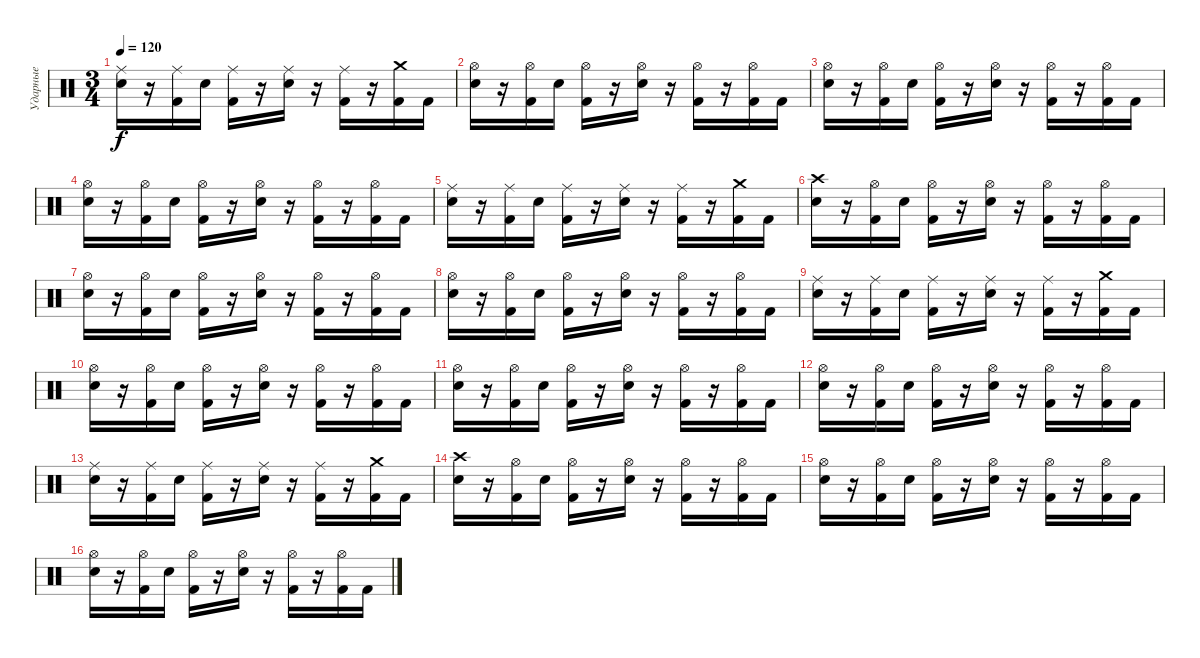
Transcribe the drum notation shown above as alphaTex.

\track ("Ударные" "Ударные") {instrument percussion}
\staff {score}
\articulation defaults
\ts (3 4)
\tempo 120
\clef neutral
\ks c
("Ride (middle)" "Electric Snare (hit)").16{dy f} r.16 ("Ride (middle)" "Kick (hit) 2").16 "Electric Snare (hit)".16 ("Ride (middle)" "Kick (hit) 2").16 r.16 ("Ride (middle)" "Electric Snare (hit)").16 r.16 ("Ride (middle)" "Kick (hit) 2").16 r.16 ("Crash medium (hit)" "Kick (hit) 2").16 "Kick (hit) 2".16 |
("Hi-Hat (open)" "Electric Snare (hit)").16 r.16 ("Hi-Hat (open)" "Kick (hit) 2").16 "Electric Snare (hit)".16 ("Hi-Hat (open)" "Kick (hit) 2").16 r.16 ("Hi-Hat (open)" "Electric Snare (hit)").16 r.16 ("Hi-Hat (open)" "Kick (hit) 2").16 r.16 ("Hi-Hat (open)" "Kick (hit) 2").16 "Kick (hit) 2".16 |
("Hi-Hat (open)" "Electric Snare (hit)").16 r.16 ("Hi-Hat (open)" "Kick (hit) 2").16 "Electric Snare (hit)".16 ("Hi-Hat (open)" "Kick (hit) 2").16 r.16 ("Hi-Hat (open)" "Electric Snare (hit)").16 r.16 ("Hi-Hat (open)" "Kick (hit) 2").16 r.16 ("Hi-Hat (open)" "Kick (hit) 2").16 "Kick (hit) 2".16 |
("Hi-Hat (open)" "Electric Snare (hit)").16 r.16 ("Hi-Hat (open)" "Kick (hit) 2").16 "Electric Snare (hit)".16 ("Hi-Hat (open)" "Kick (hit) 2").16 r.16 ("Hi-Hat (open)" "Electric Snare (hit)").16 r.16 ("Hi-Hat (open)" "Kick (hit) 2").16 r.16 ("Hi-Hat (open)" "Kick (hit) 2").16 "Kick (hit) 2".16 |
("Ride (middle)" "Electric Snare (hit)").16 r.16 ("Ride (middle)" "Kick (hit) 2").16 "Electric Snare (hit)".16 ("Ride (middle)" "Kick (hit) 2").16 r.16 ("Ride (middle)" "Electric Snare (hit)").16 r.16 ("Ride (middle)" "Kick (hit) 2").16 r.16 ("Crash medium (hit)" "Kick (hit) 2").16 "Kick (hit) 2".16 |
("Crash high (hit)" "Electric Snare (hit)").16 r.16 ("Hi-Hat (open)" "Kick (hit) 2").16 "Electric Snare (hit)".16 ("Hi-Hat (open)" "Kick (hit) 2").16 r.16 ("Hi-Hat (open)" "Electric Snare (hit)").16 r.16 ("Hi-Hat (open)" "Kick (hit) 2").16 r.16 ("Hi-Hat (open)" "Kick (hit) 2").16 "Kick (hit) 2".16 |
("Hi-Hat (open)" "Electric Snare (hit)").16 r.16 ("Hi-Hat (open)" "Kick (hit) 2").16 "Electric Snare (hit)".16 ("Hi-Hat (open)" "Kick (hit) 2").16 r.16 ("Hi-Hat (open)" "Electric Snare (hit)").16 r.16 ("Hi-Hat (open)" "Kick (hit) 2").16 r.16 ("Hi-Hat (open)" "Kick (hit) 2").16 "Kick (hit) 2".16 |
("Hi-Hat (open)" "Electric Snare (hit)").16 r.16 ("Hi-Hat (open)" "Kick (hit) 2").16 "Electric Snare (hit)".16 ("Hi-Hat (open)" "Kick (hit) 2").16 r.16 ("Hi-Hat (open)" "Electric Snare (hit)").16 r.16 ("Hi-Hat (open)" "Kick (hit) 2").16 r.16 ("Hi-Hat (open)" "Kick (hit) 2").16 "Kick (hit) 2".16 |
("Ride (middle)" "Electric Snare (hit)").16 r.16 ("Ride (middle)" "Kick (hit) 2").16 "Electric Snare (hit)".16 ("Ride (middle)" "Kick (hit) 2").16 r.16 ("Ride (middle)" "Electric Snare (hit)").16 r.16 ("Ride (middle)" "Kick (hit) 2").16 r.16 ("Crash medium (hit)" "Kick (hit) 2").16 "Kick (hit) 2".16 |
("Hi-Hat (open)" "Electric Snare (hit)").16 r.16 ("Hi-Hat (open)" "Kick (hit) 2").16 "Electric Snare (hit)".16 ("Hi-Hat (open)" "Kick (hit) 2").16 r.16 ("Hi-Hat (open)" "Electric Snare (hit)").16 r.16 ("Hi-Hat (open)" "Kick (hit) 2").16 r.16 ("Hi-Hat (open)" "Kick (hit) 2").16 "Kick (hit) 2".16 |
("Hi-Hat (open)" "Electric Snare (hit)").16 r.16 ("Hi-Hat (open)" "Kick (hit) 2").16 "Electric Snare (hit)".16 ("Hi-Hat (open)" "Kick (hit) 2").16 r.16 ("Hi-Hat (open)" "Electric Snare (hit)").16 r.16 ("Hi-Hat (open)" "Kick (hit) 2").16 r.16 ("Hi-Hat (open)" "Kick (hit) 2").16 "Kick (hit) 2".16 |
("Hi-Hat (open)" "Electric Snare (hit)").16 r.16 ("Hi-Hat (open)" "Kick (hit) 2").16 "Electric Snare (hit)".16 ("Hi-Hat (open)" "Kick (hit) 2").16 r.16 ("Hi-Hat (open)" "Electric Snare (hit)").16 r.16 ("Hi-Hat (open)" "Kick (hit) 2").16 r.16 ("Hi-Hat (open)" "Kick (hit) 2").16 "Kick (hit) 2".16 |
("Ride (middle)" "Electric Snare (hit)").16 r.16 ("Ride (middle)" "Kick (hit) 2").16 "Electric Snare (hit)".16 ("Ride (middle)" "Kick (hit) 2").16 r.16 ("Ride (middle)" "Electric Snare (hit)").16 r.16 ("Ride (middle)" "Kick (hit) 2").16 r.16 ("Crash medium (hit)" "Kick (hit) 2").16 "Kick (hit) 2".16 |
("Crash high (hit)" "Electric Snare (hit)").16 r.16 ("Hi-Hat (open)" "Kick (hit) 2").16 "Electric Snare (hit)".16 ("Hi-Hat (open)" "Kick (hit) 2").16 r.16 ("Hi-Hat (open)" "Electric Snare (hit)").16 r.16 ("Hi-Hat (open)" "Kick (hit) 2").16 r.16 ("Hi-Hat (open)" "Kick (hit) 2").16 "Kick (hit) 2".16 |
("Hi-Hat (open)" "Electric Snare (hit)").16 r.16 ("Hi-Hat (open)" "Kick (hit) 2").16 "Electric Snare (hit)".16 ("Hi-Hat (open)" "Kick (hit) 2").16 r.16 ("Hi-Hat (open)" "Electric Snare (hit)").16 r.16 ("Hi-Hat (open)" "Kick (hit) 2").16 r.16 ("Hi-Hat (open)" "Kick (hit) 2").16 "Kick (hit) 2".16 |
("Hi-Hat (open)" "Electric Snare (hit)").16 r.16 ("Hi-Hat (open)" "Kick (hit) 2").16 "Electric Snare (hit)".16 ("Hi-Hat (open)" "Kick (hit) 2").16 r.16 ("Hi-Hat (open)" "Electric Snare (hit)").16 r.16 ("Hi-Hat (open)" "Kick (hit) 2").16 r.16 ("Hi-Hat (open)" "Kick (hit) 2").16 "Kick (hit) 2".16
